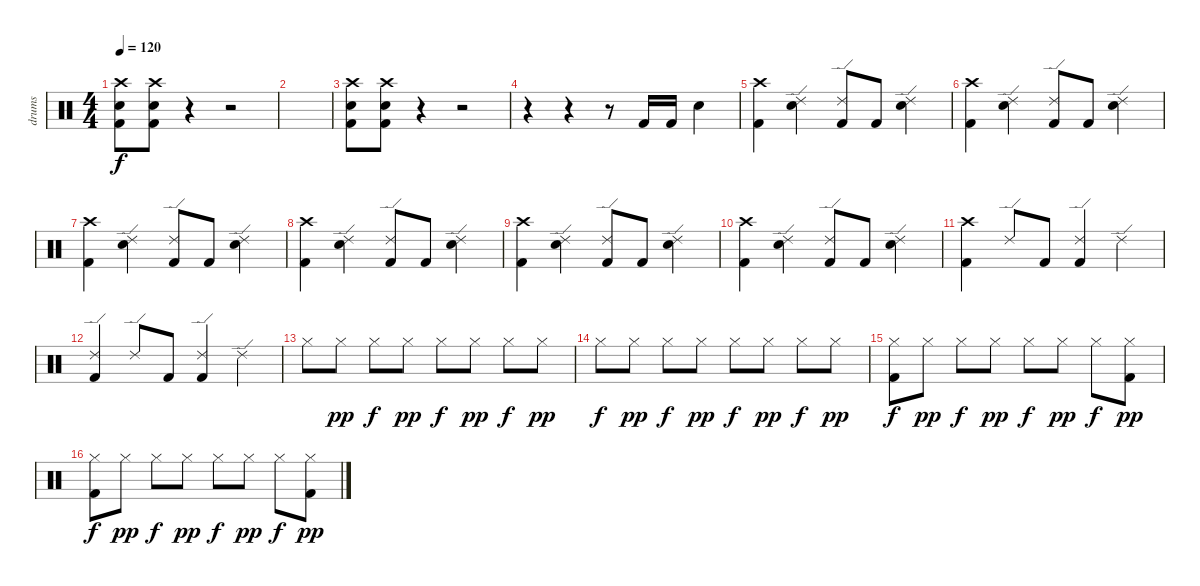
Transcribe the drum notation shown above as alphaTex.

\track ("drums" "drums") {instrument percussion}
\staff {score}
\articulation defaults
\ts (4 4)
\tempo 120
\clef neutral
\ks c
("Crash high (hit)" "Snare (hit) 2" "Kick (hit) 2").8{dy f} ("Crash high (hit)" "Snare (hit) 2" "Kick (hit) 2").8 r.4 r.2 |
|
("Crash high (hit)" "Snare (hit) 2" "Kick (hit) 2").8 ("Crash high (hit)" "Snare (hit) 2" "Kick (hit) 2").8 r.4 r.2 |
r.4 r.4 r.8 "Kick (hit) 2".16 "Kick (hit) 2".16 "Snare (hit) 2".4 |
("Crash high (hit)" "Kick (hit) 2").4 ("Ride (edge) 2" "Snare (hit) 2").4 ("Ride (edge) 2" "Kick (hit) 2").8 "Kick (hit) 2".8 ("Ride (edge) 2" "Snare (hit) 2").4 |
("Crash high (hit)" "Kick (hit) 2").4 ("Ride (edge) 2" "Snare (hit) 2").4 ("Ride (edge) 2" "Kick (hit) 2").8 "Kick (hit) 2".8 ("Ride (edge) 2" "Snare (hit) 2").4 |
("Crash high (hit)" "Kick (hit) 2").4 ("Ride (edge) 2" "Snare (hit) 2").4 ("Ride (edge) 2" "Kick (hit) 2").8 "Kick (hit) 2".8 ("Ride (edge) 2" "Snare (hit) 2").4 |
("Crash high (hit)" "Kick (hit) 2").4 ("Ride (edge) 2" "Snare (hit) 2").4 ("Ride (edge) 2" "Kick (hit) 2").8 "Kick (hit) 2".8 ("Ride (edge) 2" "Snare (hit) 2").4 |
("Crash high (hit)" "Kick (hit) 2").4 ("Ride (edge) 2" "Snare (hit) 2").4 ("Ride (edge) 2" "Kick (hit) 2").8 "Kick (hit) 2".8 ("Ride (edge) 2" "Snare (hit) 2").4 |
("Crash high (hit)" "Kick (hit) 2").4 ("Ride (edge) 2" "Snare (hit) 2").4 ("Ride (edge) 2" "Kick (hit) 2").8 "Kick (hit) 2".8 ("Ride (edge) 2" "Snare (hit) 2").4 |
("Crash high (hit)" "Kick (hit) 2").4 "Ride (edge) 2".8 "Kick (hit) 2".8 ("Ride (edge) 2" "Kick (hit) 2").4 "Ride (edge) 2".4 |
("Ride (edge) 2" "Kick (hit) 2").4 "Ride (edge) 2".8 "Kick (hit) 2".8 ("Ride (edge) 2" "Kick (hit) 2").4 "Ride (edge) 2".4 |
"Hi-Hat (closed)".8 "Hi-Hat (closed)".8{dy pp} "Hi-Hat (closed)".8{dy f} "Hi-Hat (closed)".8{dy pp} "Hi-Hat (closed)".8{dy f} "Hi-Hat (closed)".8{dy pp} "Hi-Hat (closed)".8{dy f} "Hi-Hat (closed)".8{dy pp} |
"Hi-Hat (closed)".8{dy f} "Hi-Hat (closed)".8{dy pp} "Hi-Hat (closed)".8{dy f} "Hi-Hat (closed)".8{dy pp} "Hi-Hat (closed)".8{dy f} "Hi-Hat (closed)".8{dy pp} "Hi-Hat (closed)".8{dy f} "Hi-Hat (closed)".8{dy pp} |
("Hi-Hat (closed)" "Kick (hit) 2").8{dy f} "Hi-Hat (closed)".8{dy pp} "Hi-Hat (closed)".8{dy f} "Hi-Hat (closed)".8{dy pp} "Hi-Hat (closed)".8{dy f} "Hi-Hat (closed)".8{dy pp} "Hi-Hat (closed)".8{dy f} ("Hi-Hat (closed)" "Kick (hit) 2").8{dy pp} |
("Hi-Hat (closed)" "Kick (hit) 2").8{dy f} "Hi-Hat (closed)".8{dy pp} "Hi-Hat (closed)".8{dy f} "Hi-Hat (closed)".8{dy pp} "Hi-Hat (closed)".8{dy f} "Hi-Hat (closed)".8{dy pp} "Hi-Hat (closed)".8{dy f} ("Hi-Hat (closed)" "Kick (hit) 2").8{dy pp}
